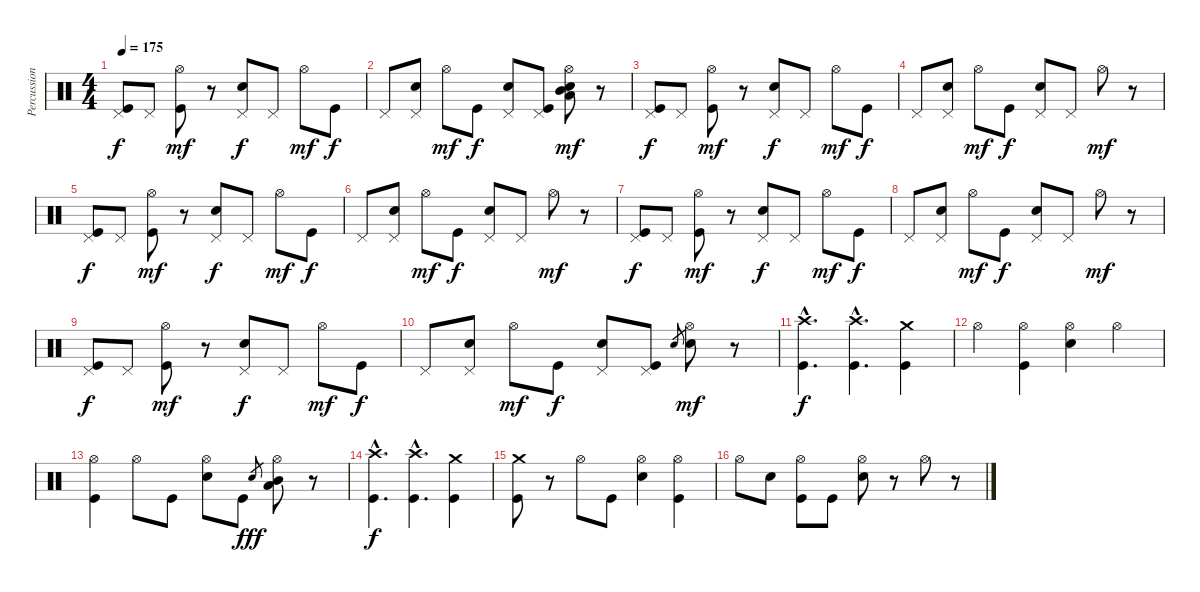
\track ("Percussions" "Percussion") {instrument percussion}
\staff {score}
\articulation defaults
\ts (4 4)
\tempo 175
\clef neutral
\ks c
("Pedal Hi-Hat (hit)" "Kick (hit)").8{dy f} "Pedal Hi-Hat (hit)".8 ("Hi-Hat (open)" "Kick (hit)").8{dy mf} r.8 ("Pedal Hi-Hat (hit)" "Snare (hit) 2").8{dy f} "Pedal Hi-Hat (hit)".8 "Hi-Hat (open)".8{dy mf} "Kick (hit)".8{dy f} |
"Pedal Hi-Hat (hit)".8 ("Pedal Hi-Hat (hit)" "Snare (hit) 2").8 "Hi-Hat (open)".8{dy mf} "Kick (hit)".8{dy f} ("Pedal Hi-Hat (hit)" "Snare (hit) 2").8 ("Pedal Hi-Hat (hit)" "Kick (hit)").8 ("Hi-Hat (open)" "Mid Tom (hit)" "Low Tom (hit)" "Snare (hit) 2").8{dy mf} r.8 |
("Pedal Hi-Hat (hit)" "Kick (hit)").8{dy f} "Pedal Hi-Hat (hit)".8 ("Hi-Hat (open)" "Kick (hit)").8{dy mf} r.8 ("Pedal Hi-Hat (hit)" "Snare (hit) 2").8{dy f} "Pedal Hi-Hat (hit)".8 "Hi-Hat (open)".8{dy mf} "Kick (hit)".8{dy f} |
"Pedal Hi-Hat (hit)".8 ("Pedal Hi-Hat (hit)" "Snare (hit) 2").8 "Hi-Hat (open)".8{dy mf} "Kick (hit)".8{dy f} ("Pedal Hi-Hat (hit)" "Snare (hit) 2").8 "Pedal Hi-Hat (hit)".8 "Hi-Hat (open)".8{dy mf} r.8 |
("Pedal Hi-Hat (hit)" "Kick (hit)").8{dy f} "Pedal Hi-Hat (hit)".8 ("Hi-Hat (open)" "Kick (hit)").8{dy mf} r.8 ("Pedal Hi-Hat (hit)" "Snare (hit) 2").8{dy f} "Pedal Hi-Hat (hit)".8 "Hi-Hat (open)".8{dy mf} "Kick (hit)".8{dy f} |
"Pedal Hi-Hat (hit)".8 ("Pedal Hi-Hat (hit)" "Snare (hit) 2").8 "Hi-Hat (open)".8{dy mf} "Kick (hit)".8{dy f} ("Pedal Hi-Hat (hit)" "Snare (hit) 2").8 "Pedal Hi-Hat (hit)".8 "Hi-Hat (open)".8{dy mf} r.8 |
("Pedal Hi-Hat (hit)" "Kick (hit)").8{dy f} "Pedal Hi-Hat (hit)".8 ("Hi-Hat (open)" "Kick (hit)").8{dy mf} r.8 ("Pedal Hi-Hat (hit)" "Snare (hit) 2").8{dy f} "Pedal Hi-Hat (hit)".8 "Hi-Hat (open)".8{dy mf} "Kick (hit)".8{dy f} |
"Pedal Hi-Hat (hit)".8 ("Pedal Hi-Hat (hit)" "Snare (hit) 2").8 "Hi-Hat (open)".8{dy mf} "Kick (hit)".8{dy f} ("Pedal Hi-Hat (hit)" "Snare (hit) 2").8 "Pedal Hi-Hat (hit)".8 "Hi-Hat (open)".8{dy mf} r.8 |
("Pedal Hi-Hat (hit)" "Kick (hit)").8{dy f} "Pedal Hi-Hat (hit)".8 ("Hi-Hat (open)" "Kick (hit)").8{dy mf} r.8 ("Pedal Hi-Hat (hit)" "Snare (hit) 2").8{dy f} "Pedal Hi-Hat (hit)".8 "Hi-Hat (open)".8{dy mf} "Kick (hit)".8{dy f} |
"Pedal Hi-Hat (hit)".8 ("Pedal Hi-Hat (hit)" "Snare (hit) 2").8 "Hi-Hat (open)".8{dy mf} "Kick (hit)".8{dy f} ("Pedal Hi-Hat (hit)" "Snare (hit) 2").8 ("Pedal Hi-Hat (hit)" "Kick (hit)").8 "Snare (hit) 2".8{gr} ("Hi-Hat (open)" "Snare (hit) 2").8{dy mf} r.8 |
("Crash high (hit)"{hac} "Kick (hit)"{hac}).4{d dy f} ("Crash high (hit)"{hac} "Kick (hit)"{hac}).4{d} ("Crash medium (hit)" "Kick (hit)").4 |
"Hi-Hat (open)".4 ("Hi-Hat (open)" "Kick (hit)").4 ("Hi-Hat (open)" "Snare (hit) 2").4 "Hi-Hat (open)".4 |
("Hi-Hat (open)" "Kick (hit)").4 "Hi-Hat (open)".8 "Kick (hit)".8 ("Hi-Hat (open)" "Snare (hit) 2").8 "Kick (hit)".8 "Snare (hit) 2".8{gr dy fff} ("Hi-Hat (open)" "Low Tom (hit)" "Mid Tom (hit)").8 r.8 |
("Crash high (hit)"{hac} "Kick (hit)"{hac}).4{d dy f} ("Crash high (hit)"{hac} "Kick (hit)"{hac}).4{d} ("Crash medium (hit)" "Kick (hit)").4 |
("Crash medium (hit)" "Kick (hit)").8 r.8 "Hi-Hat (open)".8 "Kick (hit)".8 ("Hi-Hat (open)" "Snare (hit) 2").4 ("Hi-Hat (open)" "Kick (hit)").4 |
"Hi-Hat (open)".8 "Snare (hit) 2".8 ("Hi-Hat (open)" "Kick (hit)").8 "Kick (hit)".8 ("Hi-Hat (open)" "Snare (hit) 2").8 r.8 "Hi-Hat (open)".8 r.8
